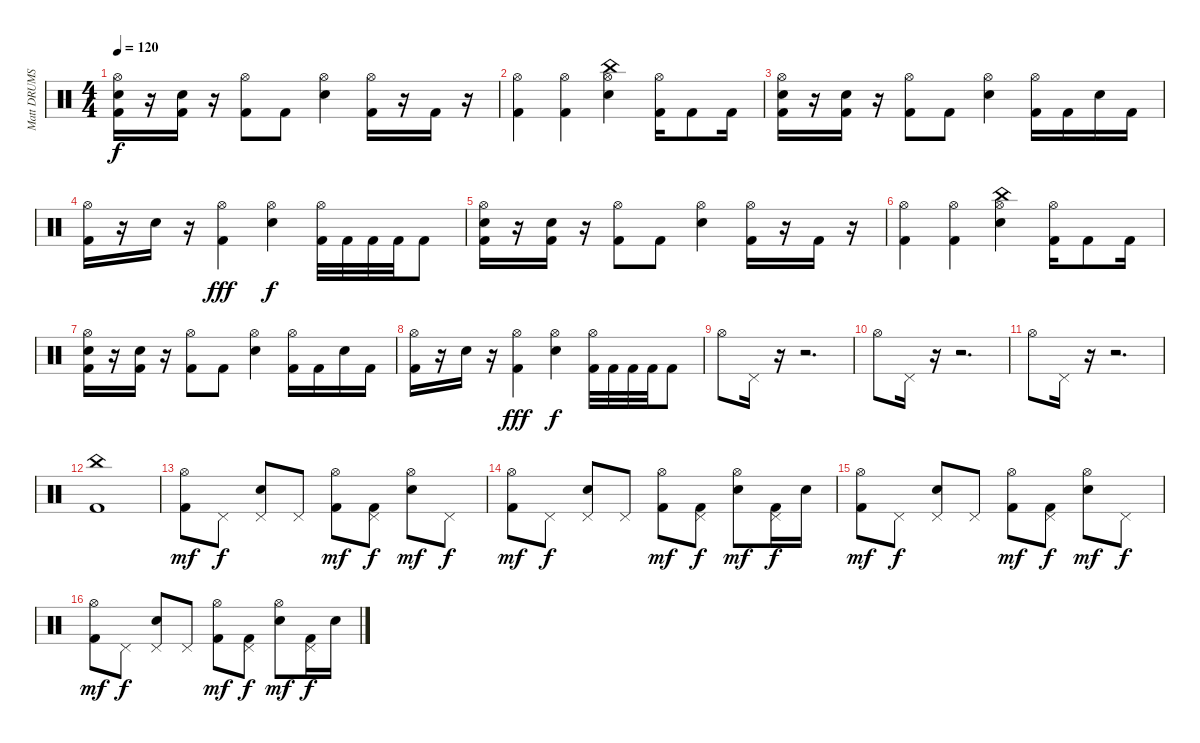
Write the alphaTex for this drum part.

\track ("Matt DRUMS" "Matt DRUMS") {instrument percussion}
\staff {score}
\articulation defaults
\ts (4 4)
\tempo 120
\clef neutral
\ks c
("Hi-Hat (open)" "Snare (hit) 2" "Kick (hit) 2").16{dy f} r.16 ("Snare (hit) 2" "Kick (hit) 2").16 r.16 ("Hi-Hat (open)" "Kick (hit) 2").8 "Kick (hit) 2".8 ("Hi-Hat (open)" "Snare (hit) 2").4 ("Hi-Hat (open)" "Kick (hit) 2").16 r.16 "Kick (hit) 2".16 r.16 |
("Hi-Hat (open)" "Kick (hit) 2").4 ("Hi-Hat (open)" "Kick (hit) 2").4 ("China (hit)" "Hi-Hat (open)" "Snare (hit) 2").4 ("Hi-Hat (open)" "Kick (hit) 2").16 "Kick (hit) 2".8 "Kick (hit) 2".16 |
("Hi-Hat (open)" "Snare (hit) 2" "Kick (hit) 2").16 r.16 ("Snare (hit) 2" "Kick (hit) 2").16 r.16 ("Hi-Hat (open)" "Kick (hit) 2").8 "Kick (hit) 2".8 ("Hi-Hat (open)" "Snare (hit) 2").4 ("Hi-Hat (open)" "Kick (hit) 2").16 "Kick (hit) 2".16 "Snare (hit) 2".16 "Kick (hit) 2".16 |
("Hi-Hat (open)" "Kick (hit) 2").16 r.16 "Snare (hit) 2".16 r.16 ("Hi-Hat (open)" "Kick (hit) 2").4{dy fff} ("Hi-Hat (open)" "Snare (hit) 2").4{dy f} ("Hi-Hat (open)" "Kick (hit) 2").32 "Kick (hit) 2".32 "Kick (hit) 2".32 "Kick (hit) 2".32 "Kick (hit) 2".8 |
("Hi-Hat (open)" "Snare (hit) 2" "Kick (hit) 2").16 r.16 ("Snare (hit) 2" "Kick (hit) 2").16 r.16 ("Hi-Hat (open)" "Kick (hit) 2").8 "Kick (hit) 2".8 ("Hi-Hat (open)" "Snare (hit) 2").4 ("Hi-Hat (open)" "Kick (hit) 2").16 r.16 "Kick (hit) 2".16 r.16 |
("Hi-Hat (open)" "Kick (hit) 2").4 ("Hi-Hat (open)" "Kick (hit) 2").4 ("China (hit)" "Hi-Hat (open)" "Snare (hit) 2").4 ("Hi-Hat (open)" "Kick (hit) 2").16 "Kick (hit) 2".8 "Kick (hit) 2".16 |
("Hi-Hat (open)" "Snare (hit) 2" "Kick (hit) 2").16 r.16 ("Snare (hit) 2" "Kick (hit) 2").16 r.16 ("Hi-Hat (open)" "Kick (hit) 2").8 "Kick (hit) 2".8 ("Hi-Hat (open)" "Snare (hit) 2").4 ("Hi-Hat (open)" "Kick (hit) 2").16 "Kick (hit) 2".16 "Snare (hit) 2".16 "Kick (hit) 2".16 |
("Hi-Hat (open)" "Kick (hit) 2").16 r.16 "Snare (hit) 2".16 r.16 ("Hi-Hat (open)" "Kick (hit) 2").4{dy fff} ("Hi-Hat (open)" "Snare (hit) 2").4{dy f} ("Hi-Hat (open)" "Kick (hit) 2").32 "Kick (hit) 2".32 "Kick (hit) 2".32 "Kick (hit) 2".32 "Kick (hit) 2".8 |
"Hi-Hat (open)".8 "Pedal Hi-Hat (hit)".16 r.16 r.2{d} |
"Hi-Hat (open)".8 "Pedal Hi-Hat (hit)".16 r.16 r.2{d} |
"Hi-Hat (open)".8 "Pedal Hi-Hat (hit)".16 r.16 r.2{d} |
("China (hit)" "Kick (hit) 2").1 |
("Hi-Hat (open)" "Kick (hit) 2").8{dy mf} "Pedal Hi-Hat (hit)".8{dy f} ("Pedal Hi-Hat (hit)" "Snare (hit) 2").8 "Pedal Hi-Hat (hit)".8 ("Hi-Hat (open)" "Kick (hit) 2").8{dy mf} ("Pedal Hi-Hat (hit)" "Kick (hit) 2").8{dy f} ("Hi-Hat (open)" "Snare (hit) 2").8{dy mf} "Pedal Hi-Hat (hit)".8{dy f} |
("Hi-Hat (open)" "Kick (hit) 2").8{dy mf} "Pedal Hi-Hat (hit)".8{dy f} ("Pedal Hi-Hat (hit)" "Snare (hit) 2").8 "Pedal Hi-Hat (hit)".8 ("Hi-Hat (open)" "Kick (hit) 2").8{dy mf} ("Pedal Hi-Hat (hit)" "Kick (hit) 2").8{dy f} ("Hi-Hat (open)" "Snare (hit) 2").8{dy mf} ("Pedal Hi-Hat (hit)" "Kick (hit) 2").16{dy f} "Snare (hit) 2".16 |
("Hi-Hat (open)" "Kick (hit) 2").8{dy mf} "Pedal Hi-Hat (hit)".8{dy f} ("Pedal Hi-Hat (hit)" "Snare (hit) 2").8 "Pedal Hi-Hat (hit)".8 ("Hi-Hat (open)" "Kick (hit) 2").8{dy mf} ("Pedal Hi-Hat (hit)" "Kick (hit) 2").8{dy f} ("Hi-Hat (open)" "Snare (hit) 2").8{dy mf} "Pedal Hi-Hat (hit)".8{dy f} |
("Hi-Hat (open)" "Kick (hit) 2").8{dy mf} "Pedal Hi-Hat (hit)".8{dy f} ("Pedal Hi-Hat (hit)" "Snare (hit) 2").8 "Pedal Hi-Hat (hit)".8 ("Hi-Hat (open)" "Kick (hit) 2").8{dy mf} ("Pedal Hi-Hat (hit)" "Kick (hit) 2").8{dy f} ("Hi-Hat (open)" "Snare (hit) 2").8{dy mf} ("Pedal Hi-Hat (hit)" "Kick (hit) 2").16{dy f} "Snare (hit) 2".16
